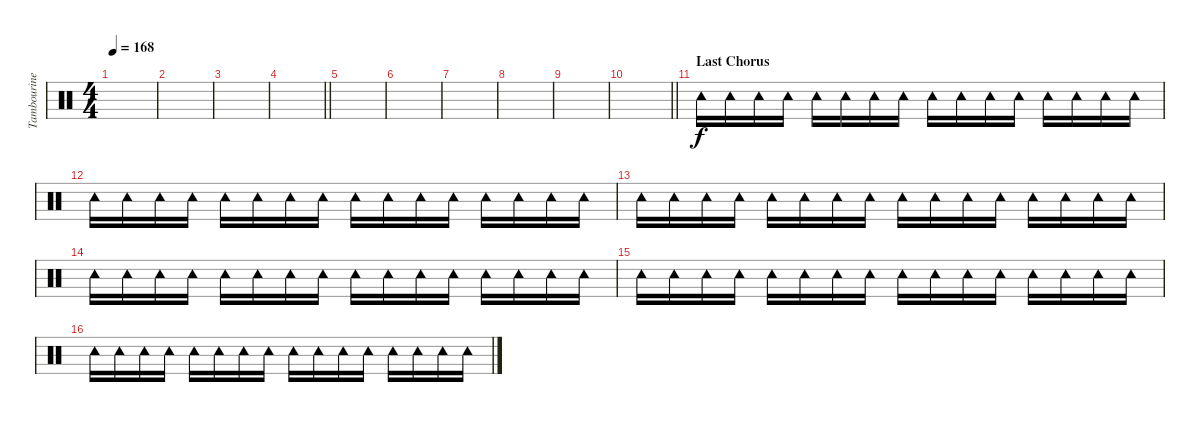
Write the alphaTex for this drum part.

\track ("Tambourine" "Tambourine") {instrument percussion}
\staff {score}
\articulation defaults
\ts (4 4)
\tempo 168
\clef neutral
\ks c
|
|
|
\barLineRight lightlight
|
|
|
|
|
|
\barLineRight lightlight
|
\section ("" "Last Chorus")
"Tambourine (hit)".16 "Tambourine (hit)".16 "Tambourine (hit)".16 "Tambourine (hit)".16 "Tambourine (hit)".16 "Tambourine (hit)".16 "Tambourine (hit)".16 "Tambourine (hit)".16 "Tambourine (hit)".16 "Tambourine (hit)".16 "Tambourine (hit)".16 "Tambourine (hit)".16 "Tambourine (hit)".16 "Tambourine (hit)".16 "Tambourine (hit)".16 "Tambourine (hit)".16 |
"Tambourine (hit)".16 "Tambourine (hit)".16 "Tambourine (hit)".16 "Tambourine (hit)".16 "Tambourine (hit)".16 "Tambourine (hit)".16 "Tambourine (hit)".16 "Tambourine (hit)".16 "Tambourine (hit)".16 "Tambourine (hit)".16 "Tambourine (hit)".16 "Tambourine (hit)".16 "Tambourine (hit)".16 "Tambourine (hit)".16 "Tambourine (hit)".16 "Tambourine (hit)".16 |
"Tambourine (hit)".16 "Tambourine (hit)".16 "Tambourine (hit)".16 "Tambourine (hit)".16 "Tambourine (hit)".16 "Tambourine (hit)".16 "Tambourine (hit)".16 "Tambourine (hit)".16 "Tambourine (hit)".16 "Tambourine (hit)".16 "Tambourine (hit)".16 "Tambourine (hit)".16 "Tambourine (hit)".16 "Tambourine (hit)".16 "Tambourine (hit)".16 "Tambourine (hit)".16 |
"Tambourine (hit)".16 "Tambourine (hit)".16 "Tambourine (hit)".16 "Tambourine (hit)".16 "Tambourine (hit)".16 "Tambourine (hit)".16 "Tambourine (hit)".16 "Tambourine (hit)".16 "Tambourine (hit)".16 "Tambourine (hit)".16 "Tambourine (hit)".16 "Tambourine (hit)".16 "Tambourine (hit)".16 "Tambourine (hit)".16 "Tambourine (hit)".16 "Tambourine (hit)".16 |
"Tambourine (hit)".16 "Tambourine (hit)".16 "Tambourine (hit)".16 "Tambourine (hit)".16 "Tambourine (hit)".16 "Tambourine (hit)".16 "Tambourine (hit)".16 "Tambourine (hit)".16 "Tambourine (hit)".16 "Tambourine (hit)".16 "Tambourine (hit)".16 "Tambourine (hit)".16 "Tambourine (hit)".16 "Tambourine (hit)".16 "Tambourine (hit)".16 "Tambourine (hit)".16 |
"Tambourine (hit)".16 "Tambourine (hit)".16 "Tambourine (hit)".16 "Tambourine (hit)".16 "Tambourine (hit)".16 "Tambourine (hit)".16 "Tambourine (hit)".16 "Tambourine (hit)".16 "Tambourine (hit)".16 "Tambourine (hit)".16 "Tambourine (hit)".16 "Tambourine (hit)".16 "Tambourine (hit)".16 "Tambourine (hit)".16 "Tambourine (hit)".16 "Tambourine (hit)".16
